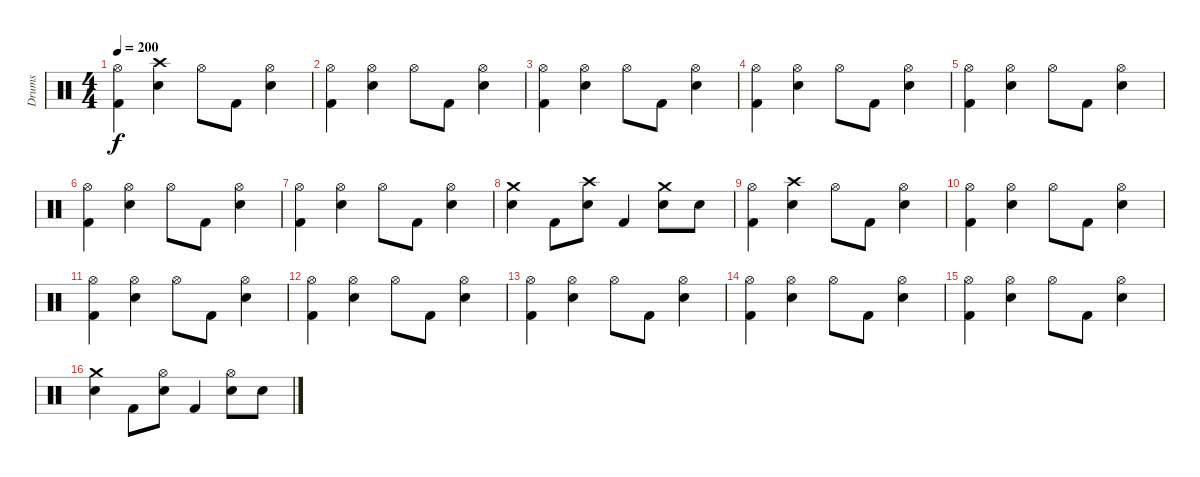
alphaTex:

\track ("Drums" "Drums") {instrument percussion}
\staff {score}
\articulation defaults
\ts (4 4)
\tempo 200
\clef neutral
\ks c
("Kick (hit) 2" "Hi-Hat (open)").4{dy f} ("Electric Snare (hit)" "Crash high (hit)").4 "Hi-Hat (open)".8 "Kick (hit) 2".8 ("Electric Snare (hit)" "Hi-Hat (open)").4 |
("Kick (hit) 2" "Hi-Hat (open)").4 ("Electric Snare (hit)" "Hi-Hat (open)").4 "Hi-Hat (open)".8 "Kick (hit) 2".8 ("Hi-Hat (open)" "Electric Snare (hit)").4 |
("Kick (hit) 2" "Hi-Hat (open)").4 ("Electric Snare (hit)" "Hi-Hat (open)").4 "Hi-Hat (open)".8 "Kick (hit) 2".8 ("Hi-Hat (open)" "Electric Snare (hit)").4 |
("Kick (hit) 2" "Hi-Hat (open)").4 ("Electric Snare (hit)" "Hi-Hat (open)").4 "Hi-Hat (open)".8 "Kick (hit) 2".8 ("Hi-Hat (open)" "Electric Snare (hit)").4 |
("Kick (hit) 2" "Hi-Hat (open)").4 ("Electric Snare (hit)" "Hi-Hat (open)").4 "Hi-Hat (open)".8 "Kick (hit) 2".8 ("Hi-Hat (open)" "Electric Snare (hit)").4 |
("Kick (hit) 2" "Hi-Hat (open)").4 ("Electric Snare (hit)" "Hi-Hat (open)").4 "Hi-Hat (open)".8 "Kick (hit) 2".8 ("Hi-Hat (open)" "Electric Snare (hit)").4 |
("Kick (hit) 2" "Hi-Hat (open)").4 ("Electric Snare (hit)" "Hi-Hat (open)").4 "Hi-Hat (open)".8 "Kick (hit) 2".8 ("Hi-Hat (open)" "Electric Snare (hit)").4 |
("Electric Snare (hit)" "Crash medium (hit)").4 "Kick (hit) 2".8 ("Electric Snare (hit)" "Crash high (hit)").8 "Kick (hit) 2".4 ("Electric Snare (hit)" "Crash medium (hit)").8 "Electric Snare (hit)".8 |
("Kick (hit) 2" "Hi-Hat (open)").4 ("Electric Snare (hit)" "Crash high (hit)").4 "Hi-Hat (open)".8 "Kick (hit) 2".8 ("Electric Snare (hit)" "Hi-Hat (open)").4 |
("Kick (hit) 2" "Hi-Hat (open)").4 ("Electric Snare (hit)" "Hi-Hat (open)").4 "Hi-Hat (open)".8 "Kick (hit) 2".8 ("Hi-Hat (open)" "Electric Snare (hit)").4 |
("Kick (hit) 2" "Hi-Hat (open)").4 ("Electric Snare (hit)" "Hi-Hat (open)").4 "Hi-Hat (open)".8 "Kick (hit) 2".8 ("Hi-Hat (open)" "Electric Snare (hit)").4 |
("Kick (hit) 2" "Hi-Hat (open)").4 ("Electric Snare (hit)" "Hi-Hat (open)").4 "Hi-Hat (open)".8 "Kick (hit) 2".8 ("Hi-Hat (open)" "Electric Snare (hit)").4 |
("Kick (hit) 2" "Hi-Hat (open)").4 ("Electric Snare (hit)" "Hi-Hat (open)").4 "Hi-Hat (open)".8 "Kick (hit) 2".8 ("Hi-Hat (open)" "Electric Snare (hit)").4 |
("Kick (hit) 2" "Hi-Hat (open)").4 ("Electric Snare (hit)" "Hi-Hat (open)").4 "Hi-Hat (open)".8 "Kick (hit) 2".8 ("Hi-Hat (open)" "Electric Snare (hit)").4 |
("Kick (hit) 2" "Hi-Hat (open)").4 ("Electric Snare (hit)" "Hi-Hat (open)").4 "Hi-Hat (open)".8 "Kick (hit) 2".8 ("Hi-Hat (open)" "Electric Snare (hit)").4 |
("Electric Snare (hit)" "Crash medium (hit)").4 "Kick (hit) 2".8 ("Electric Snare (hit)" "Hi-Hat (open)").8 "Kick (hit) 2".4 ("Electric Snare (hit)" "Hi-Hat (open)").8 "Electric Snare (hit)".8
